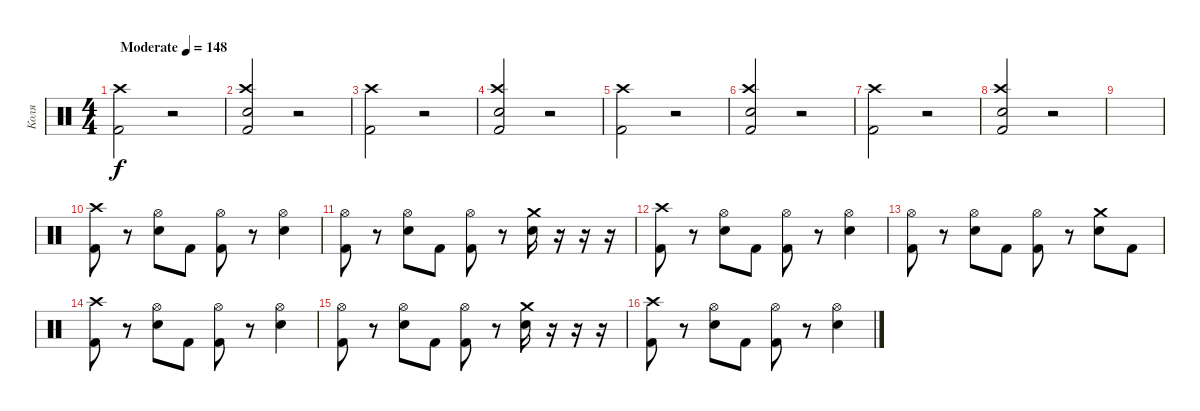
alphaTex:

\track ("Коля" "Коля") {instrument percussion}
\staff {score}
\articulation defaults
\ts (4 4)
\tempo (148 "Moderate")
\clef neutral
\ks c
("Kick (hit) 2" "Crash high (hit)").2{dy f} r.2 |
("Kick (hit) 2" "Electric Snare (hit)" "Crash high (hit)").2 r.2 |
("Kick (hit) 2" "Crash high (hit)").2 r.2 |
("Kick (hit) 2" "Electric Snare (hit)" "Crash high (hit)").2 r.2 |
("Kick (hit) 2" "Crash high (hit)").2 r.2 |
("Kick (hit) 2" "Electric Snare (hit)" "Crash high (hit)").2 r.2 |
("Kick (hit) 2" "Crash high (hit)").2 r.2 |
("Kick (hit) 2" "Electric Snare (hit)" "Crash high (hit)").2 r.2 |
|
("Kick (hit) 2" "Crash high (hit)").8 r.8 ("Electric Snare (hit)" "Hi-Hat (open)").8 "Kick (hit) 2".8 ("Kick (hit) 2" "Hi-Hat (open)").8 r.8 ("Electric Snare (hit)" "Hi-Hat (open)").4 |
("Kick (hit) 2" "Hi-Hat (open)").8 r.8 ("Electric Snare (hit)" "Hi-Hat (open)").8 "Kick (hit) 2".8 ("Kick (hit) 2" "Hi-Hat (open)").8 r.8 ("Electric Snare (hit)" "Crash medium (hit)").16 r.16 r.16 r.16 |
("Kick (hit) 2" "Crash high (hit)").8 r.8 ("Electric Snare (hit)" "Hi-Hat (open)").8 "Kick (hit) 2".8 ("Kick (hit) 2" "Hi-Hat (open)").8 r.8 ("Electric Snare (hit)" "Hi-Hat (open)").4 |
("Kick (hit) 2" "Hi-Hat (open)").8 r.8 ("Electric Snare (hit)" "Hi-Hat (open)").8 "Kick (hit) 2".8 ("Kick (hit) 2" "Hi-Hat (open)").8 r.8 ("Electric Snare (hit)" "Crash medium (hit)").8 "Kick (hit) 2".8 |
("Kick (hit) 2" "Crash high (hit)").8 r.8 ("Electric Snare (hit)" "Hi-Hat (open)").8 "Kick (hit) 2".8 ("Kick (hit) 2" "Hi-Hat (open)").8 r.8 ("Electric Snare (hit)" "Hi-Hat (open)").4 |
("Kick (hit) 2" "Hi-Hat (open)").8 r.8 ("Electric Snare (hit)" "Hi-Hat (open)").8 "Kick (hit) 2".8 ("Kick (hit) 2" "Hi-Hat (open)").8 r.8 ("Electric Snare (hit)" "Crash medium (hit)").16 r.16 r.16 r.16 |
("Kick (hit) 2" "Crash high (hit)").8 r.8 ("Electric Snare (hit)" "Hi-Hat (open)").8 "Kick (hit) 2".8 ("Kick (hit) 2" "Hi-Hat (open)").8 r.8 ("Electric Snare (hit)" "Hi-Hat (open)").4
